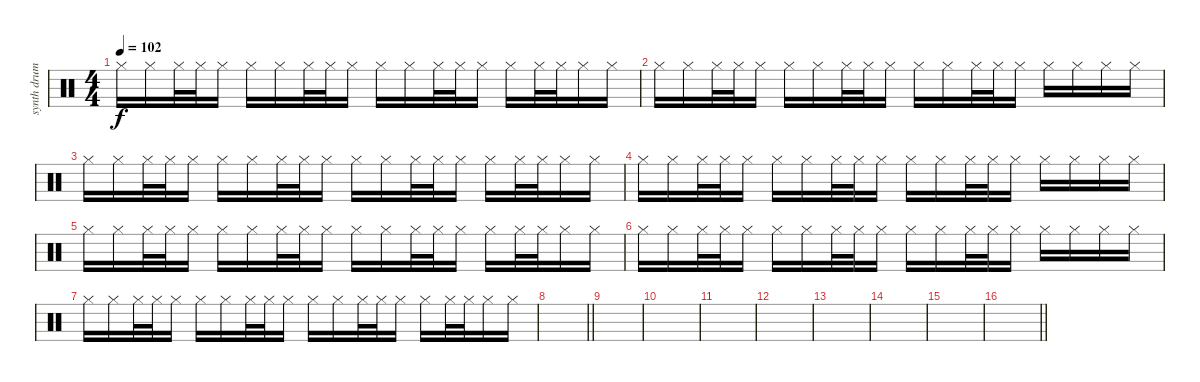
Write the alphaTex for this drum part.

\track ("synth drums" "synth drum") {instrument percussion}
\staff {score}
\articulation defaults
\ts (4 4)
\tempo 102
\clef neutral
\ks c "Hi-Hat (closed)".16{dy f} "Hi-Hat (closed)".16 "Hi-Hat (closed)".32 "Hi-Hat (closed)".32 "Hi-Hat (closed)".16 "Hi-Hat (closed)".16 "Hi-Hat (closed)".16 "Hi-Hat (closed)".32 "Hi-Hat (closed)".32 "Hi-Hat (closed)".16 "Hi-Hat (closed)".16 "Hi-Hat (closed)".16 "Hi-Hat (closed)".32 "Hi-Hat (closed)".32 "Hi-Hat (closed)".16 "Hi-Hat (closed)".16 "Hi-Hat (closed)".32 "Hi-Hat (closed)".32 "Hi-Hat (closed)".16 "Hi-Hat (closed)".16
|
"Hi-Hat (closed)".16 "Hi-Hat (closed)".16 "Hi-Hat (closed)".32 "Hi-Hat (closed)".32 "Hi-Hat (closed)".16 "Hi-Hat (closed)".16 "Hi-Hat (closed)".16 "Hi-Hat (closed)".32 "Hi-Hat (closed)".32 "Hi-Hat (closed)".16 "Hi-Hat (closed)".16 "Hi-Hat (closed)".16 "Hi-Hat (closed)".32 "Hi-Hat (closed)".32 "Hi-Hat (closed)".16 "Hi-Hat (closed)".16 "Hi-Hat (closed)".16 "Hi-Hat (closed)".16 "Hi-Hat (closed)".16 |
"Hi-Hat (closed)".16 "Hi-Hat (closed)".16 "Hi-Hat (closed)".32 "Hi-Hat (closed)".32 "Hi-Hat (closed)".16 "Hi-Hat (closed)".16 "Hi-Hat (closed)".16 "Hi-Hat (closed)".32 "Hi-Hat (closed)".32 "Hi-Hat (closed)".16 "Hi-Hat (closed)".16 "Hi-Hat (closed)".16 "Hi-Hat (closed)".32 "Hi-Hat (closed)".32 "Hi-Hat (closed)".16 "Hi-Hat (closed)".16 "Hi-Hat (closed)".32 "Hi-Hat (closed)".32 "Hi-Hat (closed)".16 "Hi-Hat (closed)".16 |
"Hi-Hat (closed)".16 "Hi-Hat (closed)".16 "Hi-Hat (closed)".32 "Hi-Hat (closed)".32 "Hi-Hat (closed)".16 "Hi-Hat (closed)".16 "Hi-Hat (closed)".16 "Hi-Hat (closed)".32 "Hi-Hat (closed)".32 "Hi-Hat (closed)".16 "Hi-Hat (closed)".16 "Hi-Hat (closed)".16 "Hi-Hat (closed)".32 "Hi-Hat (closed)".32 "Hi-Hat (closed)".16 "Hi-Hat (closed)".16 "Hi-Hat (closed)".16 "Hi-Hat (closed)".16 "Hi-Hat (closed)".16 |
"Hi-Hat (closed)".16 "Hi-Hat (closed)".16 "Hi-Hat (closed)".32 "Hi-Hat (closed)".32 "Hi-Hat (closed)".16 "Hi-Hat (closed)".16 "Hi-Hat (closed)".16 "Hi-Hat (closed)".32 "Hi-Hat (closed)".32 "Hi-Hat (closed)".16 "Hi-Hat (closed)".16 "Hi-Hat (closed)".16 "Hi-Hat (closed)".32 "Hi-Hat (closed)".32 "Hi-Hat (closed)".16 "Hi-Hat (closed)".16 "Hi-Hat (closed)".32 "Hi-Hat (closed)".32 "Hi-Hat (closed)".16 "Hi-Hat (closed)".16 |
"Hi-Hat (closed)".16 "Hi-Hat (closed)".16 "Hi-Hat (closed)".32 "Hi-Hat (closed)".32 "Hi-Hat (closed)".16 "Hi-Hat (closed)".16 "Hi-Hat (closed)".16 "Hi-Hat (closed)".32 "Hi-Hat (closed)".32 "Hi-Hat (closed)".16 "Hi-Hat (closed)".16 "Hi-Hat (closed)".16 "Hi-Hat (closed)".32 "Hi-Hat (closed)".32 "Hi-Hat (closed)".16 "Hi-Hat (closed)".16 "Hi-Hat (closed)".16 "Hi-Hat (closed)".16 "Hi-Hat (closed)".16 |
"Hi-Hat (closed)".16 "Hi-Hat (closed)".16 "Hi-Hat (closed)".32 "Hi-Hat (closed)".32 "Hi-Hat (closed)".16 "Hi-Hat (closed)".16 "Hi-Hat (closed)".16 "Hi-Hat (closed)".32 "Hi-Hat (closed)".32 "Hi-Hat (closed)".16 "Hi-Hat (closed)".16 "Hi-Hat (closed)".16 "Hi-Hat (closed)".32 "Hi-Hat (closed)".32 "Hi-Hat (closed)".16 "Hi-Hat (closed)".16 "Hi-Hat (closed)".32 "Hi-Hat (closed)".32 "Hi-Hat (closed)".16 "Hi-Hat (closed)".16 |
\barLineRight lightlight
|
|
|
|
|
|
|
|
\barLineRight lightlight
